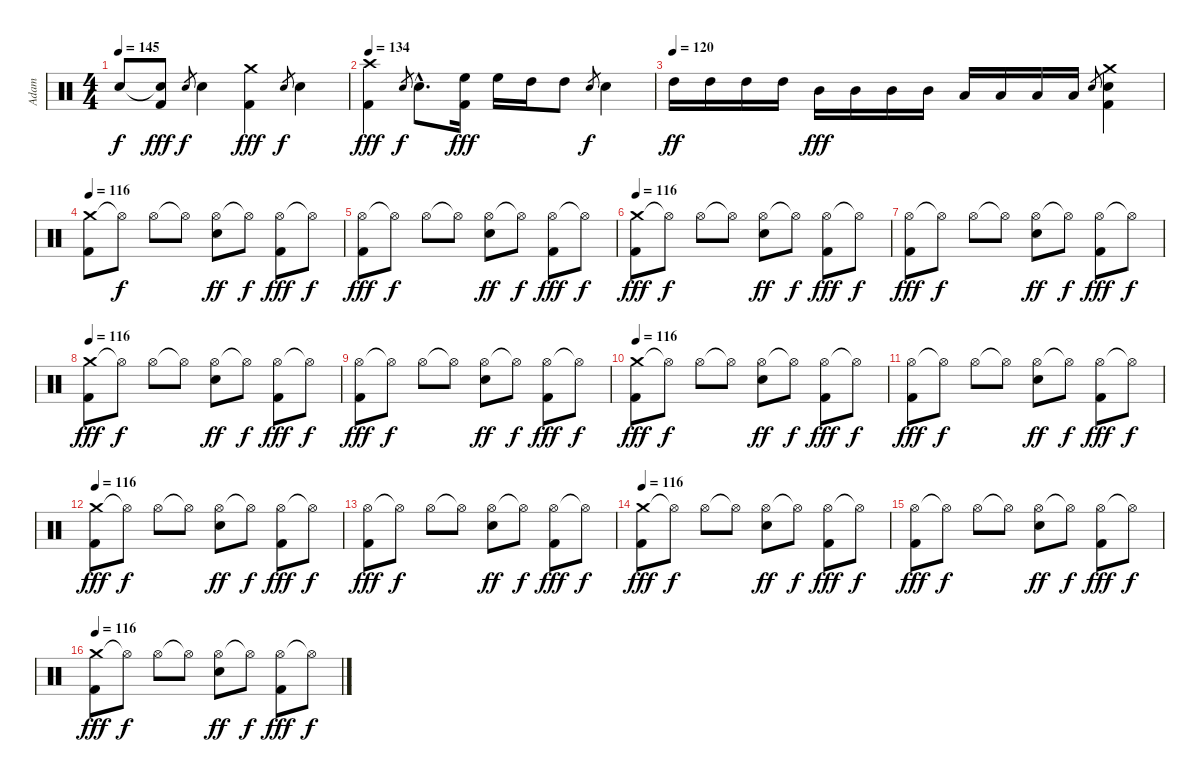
\track ("Adam" "Adam") {instrument percussion}
\staff {score}
\articulation defaults
\ts (4 4)
\tempo 145
\clef neutral
\ks c "Snare (hit)"{t}.8{dy f}
("Snare (hit)"{t} "Kick (hit) 2").8{dy fff} "Electric Snare (hit)".8{gr dy f} "Electric Snare (hit)".4 ("Crash medium (hit)" "Kick (hit) 2").4{dy fff} "Electric Snare (hit)".8{gr dy f} "Electric Snare (hit)".4 |
\tempo 134
("Crash high (hit)" "Kick (hit) 2").4{dy fff} "Electric Snare (hit)".8{gr dy f} "Electric Snare (hit)"{hac}.8{d} ("High Floor Tom (hit)" "Kick (hit) 2").16{dy fff} "High Floor Tom (hit)".16 "High Tom (hit)".16 "High Tom (hit)".8 "Electric Snare (hit)".8{gr dy f} "Electric Snare (hit)".4 |
\tempo (120)
"High Tom (hit)".16{dy ff} "High Tom (hit)".16 "High Tom (hit)".16 "High Tom (hit)".16 "Mid Tom (hit)".16{dy fff} "Mid Tom (hit)".16 "Mid Tom (hit)".16 "Mid Tom (hit)".16 "Low Tom (hit)".16 "Low Tom (hit)".16 "Low Tom (hit)".16 "Low Tom (hit)".16 "Electric Snare (hit)".8{gr} ("Crash medium (hit)" "Electric Snare (hit)" "Kick (hit) 2").4 |
\tempo 116
("Crash medium (hit)" "Kick (hit) 2").8 "Hi-Hat (open)"{t}.8{dy f} "Hi-Hat (open)".8 "Hi-Hat (open)"{t}.8 ("Hi-Hat (open)" "Electric Snare (hit)").8{dy ff} "Hi-Hat (open)"{t}.8{dy f} ("Hi-Hat (open)" "Kick (hit) 2").8{dy fff} "Hi-Hat (open)"{t}.8{dy f} |
("Hi-Hat (open)" "Kick (hit) 2").8{dy fff} "Hi-Hat (open)"{t}.8{dy f} "Hi-Hat (open)".8 "Hi-Hat (open)"{t}.8 ("Hi-Hat (open)" "Electric Snare (hit)").8{dy ff} "Hi-Hat (open)"{t}.8{dy f} ("Hi-Hat (open)" "Kick (hit) 2").8{dy fff} "Hi-Hat (open)"{t}.8{dy f} |
\tempo 116
("Crash medium (hit)" "Kick (hit) 2").8{dy fff} "Hi-Hat (open)"{t}.8{dy f} "Hi-Hat (open)".8 "Hi-Hat (open)"{t}.8 ("Hi-Hat (open)" "Electric Snare (hit)").8{dy ff} "Hi-Hat (open)"{t}.8{dy f} ("Hi-Hat (open)" "Kick (hit) 2").8{dy fff} "Hi-Hat (open)"{t}.8{dy f} |
("Hi-Hat (open)" "Kick (hit) 2").8{dy fff} "Hi-Hat (open)"{t}.8{dy f} "Hi-Hat (open)".8 "Hi-Hat (open)"{t}.8 ("Hi-Hat (open)" "Electric Snare (hit)").8{dy ff} "Hi-Hat (open)"{t}.8{dy f} ("Hi-Hat (open)" "Kick (hit) 2").8{dy fff} "Hi-Hat (open)"{t}.8{dy f} |
\tempo 116
("Crash medium (hit)" "Kick (hit) 2").8{dy fff} "Hi-Hat (open)"{t}.8{dy f} "Hi-Hat (open)".8 "Hi-Hat (open)"{t}.8 ("Hi-Hat (open)" "Electric Snare (hit)").8{dy ff} "Hi-Hat (open)"{t}.8{dy f} ("Hi-Hat (open)" "Kick (hit) 2").8{dy fff} "Hi-Hat (open)"{t}.8{dy f} |
("Hi-Hat (open)" "Kick (hit) 2").8{dy fff} "Hi-Hat (open)"{t}.8{dy f} "Hi-Hat (open)".8 "Hi-Hat (open)"{t}.8 ("Hi-Hat (open)" "Electric Snare (hit)").8{dy ff} "Hi-Hat (open)"{t}.8{dy f} ("Hi-Hat (open)" "Kick (hit) 2").8{dy fff} "Hi-Hat (open)"{t}.8{dy f} |
\tempo 116
("Crash medium (hit)" "Kick (hit) 2").8{dy fff} "Hi-Hat (open)"{t}.8{dy f} "Hi-Hat (open)".8 "Hi-Hat (open)"{t}.8 ("Hi-Hat (open)" "Electric Snare (hit)").8{dy ff} "Hi-Hat (open)"{t}.8{dy f} ("Hi-Hat (open)" "Kick (hit) 2").8{dy fff} "Hi-Hat (open)"{t}.8{dy f} |
("Hi-Hat (open)" "Kick (hit) 2").8{dy fff} "Hi-Hat (open)"{t}.8{dy f} "Hi-Hat (open)".8 "Hi-Hat (open)"{t}.8 ("Hi-Hat (open)" "Electric Snare (hit)").8{dy ff} "Hi-Hat (open)"{t}.8{dy f} ("Hi-Hat (open)" "Kick (hit) 2").8{dy fff} "Hi-Hat (open)"{t}.8{dy f} |
\tempo 116
("Crash medium (hit)" "Kick (hit) 2").8{dy fff} "Hi-Hat (open)"{t}.8{dy f} "Hi-Hat (open)".8 "Hi-Hat (open)"{t}.8 ("Hi-Hat (open)" "Electric Snare (hit)").8{dy ff} "Hi-Hat (open)"{t}.8{dy f} ("Hi-Hat (open)" "Kick (hit) 2").8{dy fff} "Hi-Hat (open)"{t}.8{dy f} |
("Hi-Hat (open)" "Kick (hit) 2").8{dy fff} "Hi-Hat (open)"{t}.8{dy f} "Hi-Hat (open)".8 "Hi-Hat (open)"{t}.8 ("Hi-Hat (open)" "Electric Snare (hit)").8{dy ff} "Hi-Hat (open)"{t}.8{dy f} ("Hi-Hat (open)" "Kick (hit) 2").8{dy fff} "Hi-Hat (open)"{t}.8{dy f} |
\tempo 116
("Crash medium (hit)" "Kick (hit) 2").8{dy fff} "Hi-Hat (open)"{t}.8{dy f} "Hi-Hat (open)".8 "Hi-Hat (open)"{t}.8 ("Hi-Hat (open)" "Electric Snare (hit)").8{dy ff} "Hi-Hat (open)"{t}.8{dy f} ("Hi-Hat (open)" "Kick (hit) 2").8{dy fff} "Hi-Hat (open)"{t}.8{dy f} |
("Hi-Hat (open)" "Kick (hit) 2").8{dy fff} "Hi-Hat (open)"{t}.8{dy f} "Hi-Hat (open)".8 "Hi-Hat (open)"{t}.8 ("Hi-Hat (open)" "Electric Snare (hit)").8{dy ff} "Hi-Hat (open)"{t}.8{dy f} ("Hi-Hat (open)" "Kick (hit) 2").8{dy fff} "Hi-Hat (open)"{t}.8{dy f} |
\tempo 116
("Crash medium (hit)" "Kick (hit) 2").8{dy fff} "Hi-Hat (open)"{t}.8{dy f} "Hi-Hat (open)".8 "Hi-Hat (open)"{t}.8 ("Hi-Hat (open)" "Electric Snare (hit)").8{dy ff} "Hi-Hat (open)"{t}.8{dy f} ("Hi-Hat (open)" "Kick (hit) 2").8{dy fff} "Hi-Hat (open)"{t}.8{dy f}
